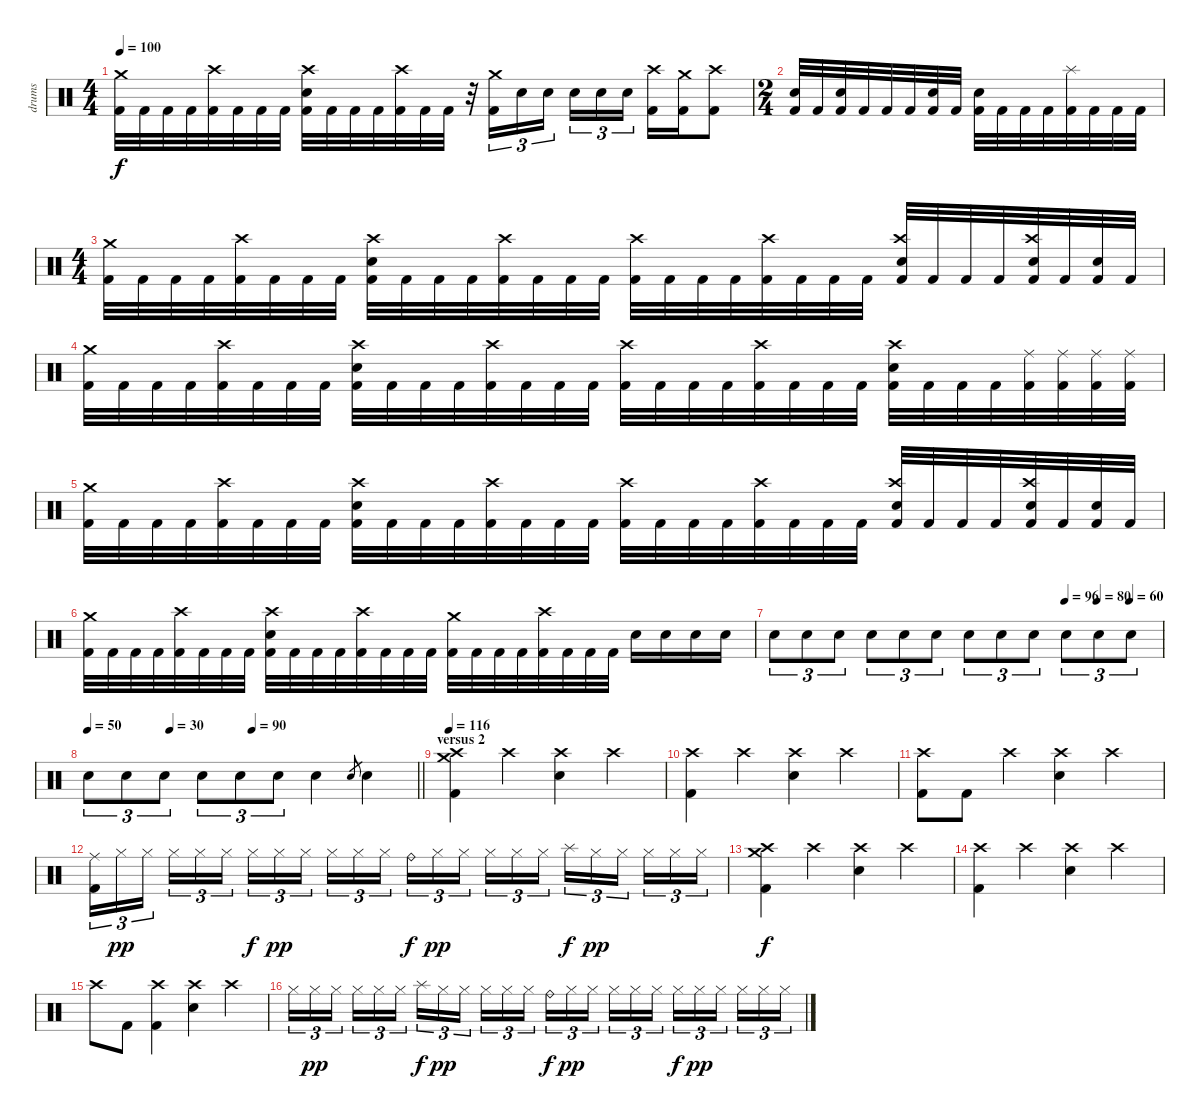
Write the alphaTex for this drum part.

\track ("drums" "drums") {instrument percussion}
\staff {score}
\articulation defaults
\ts (4 4)
\tempo 100
\clef neutral
\ks c
("Crash medium (hit)" "Kick (hit) 2").32{dy f} "Kick (hit) 2".32 "Kick (hit) 2".32 "Kick (hit) 2".32 ("Crash high (hit)" "Kick (hit) 2").32 "Kick (hit) 2".32 "Kick (hit) 2".32 "Kick (hit) 2".32 ("Crash high (hit)" "Snare (hit) 2" "Kick (hit) 2").32 "Kick (hit) 2".32 "Kick (hit) 2".32 "Kick (hit) 2".32 ("Crash high (hit)" "Kick (hit) 2").32 "Kick (hit) 2".32 "Kick (hit) 2".32 r.32 ("Crash medium (hit)" "Kick (hit) 2").16{tu (3 2)} "Snare (hit) 2".16{tu (3 2)} "Snare (hit) 2".16{tu (3 2) beam splitsecondary} "Snare (hit) 2".16{tu (3 2)} "Snare (hit) 2".16{tu (3 2)} "Snare (hit) 2".16{tu (3 2)} ("Crash high (hit)" "Kick (hit) 2").16 ("Crash medium (hit)" "Kick (hit) 2").16 ("Crash high (hit)" "Kick (hit) 2").8 |
\ts (2 4)
("Snare (hit) 2" "Kick (hit) 2").32 "Kick (hit) 2".32 ("Snare (hit) 2" "Kick (hit) 2").32 "Kick (hit) 2".32 "Kick (hit) 2".32 "Kick (hit) 2".32 ("Snare (hit) 2" "Kick (hit) 2").32 "Kick (hit) 2".32 ("Snare (hit) 2" "Kick (hit) 2").32 "Kick (hit) 2".32 "Kick (hit) 2".32 "Kick (hit) 2".32 ("Splash (hit)" "Kick (hit) 2").32 "Kick (hit) 2".32 "Kick (hit) 2".32 "Kick (hit) 2".32 |
\ts (4 4)
("Crash medium (hit)" "Kick (hit) 2").32 "Kick (hit) 2".32 "Kick (hit) 2".32 "Kick (hit) 2".32 ("Crash high (hit)" "Kick (hit) 2").32 "Kick (hit) 2".32 "Kick (hit) 2".32 "Kick (hit) 2".32 ("Crash high (hit)" "Snare (hit) 2" "Kick (hit) 2").32 "Kick (hit) 2".32 "Kick (hit) 2".32 "Kick (hit) 2".32 ("Crash high (hit)" "Kick (hit) 2").32 "Kick (hit) 2".32 "Kick (hit) 2".32 "Kick (hit) 2".32 ("Crash high (hit)" "Kick (hit) 2").32 "Kick (hit) 2".32 "Kick (hit) 2".32 "Kick (hit) 2".32 ("Crash high (hit)" "Kick (hit) 2").32 "Kick (hit) 2".32 "Kick (hit) 2".32 "Kick (hit) 2".32 ("Crash high (hit)" "Snare (hit) 2" "Kick (hit) 2").32 "Kick (hit) 2".32 "Kick (hit) 2".32 "Kick (hit) 2".32 ("Crash high (hit)" "Snare (hit) 2" "Kick (hit) 2").32 "Kick (hit) 2".32 ("Snare (hit) 2" "Kick (hit) 2").32 "Kick (hit) 2".32 |
("Crash medium (hit)" "Kick (hit) 2").32 "Kick (hit) 2".32 "Kick (hit) 2".32 "Kick (hit) 2".32 ("Crash high (hit)" "Kick (hit) 2").32 "Kick (hit) 2".32 "Kick (hit) 2".32 "Kick (hit) 2".32 ("Crash high (hit)" "Snare (hit) 2" "Kick (hit) 2").32 "Kick (hit) 2".32 "Kick (hit) 2".32 "Kick (hit) 2".32 ("Crash high (hit)" "Kick (hit) 2").32 "Kick (hit) 2".32 "Kick (hit) 2".32 "Kick (hit) 2".32 ("Crash high (hit)" "Kick (hit) 2").32 "Kick (hit) 2".32 "Kick (hit) 2".32 "Kick (hit) 2".32 ("Crash high (hit)" "Kick (hit) 2").32 "Kick (hit) 2".32 "Kick (hit) 2".32 "Kick (hit) 2".32 ("Crash high (hit)" "Snare (hit) 2" "Kick (hit) 2").32 "Kick (hit) 2".32 "Kick (hit) 2".32 "Kick (hit) 2".32 ("Ride (middle)" "Kick (hit) 2").32 ("Ride (middle)" "Kick (hit) 2").32 ("Ride (middle)" "Kick (hit) 2").32 ("Ride (middle)" "Kick (hit) 2").32 |
("Crash medium (hit)" "Kick (hit) 2").32 "Kick (hit) 2".32 "Kick (hit) 2".32 "Kick (hit) 2".32 ("Crash high (hit)" "Kick (hit) 2").32 "Kick (hit) 2".32 "Kick (hit) 2".32 "Kick (hit) 2".32 ("Crash high (hit)" "Snare (hit) 2" "Kick (hit) 2").32 "Kick (hit) 2".32 "Kick (hit) 2".32 "Kick (hit) 2".32 ("Crash high (hit)" "Kick (hit) 2").32 "Kick (hit) 2".32 "Kick (hit) 2".32 "Kick (hit) 2".32 ("Crash high (hit)" "Kick (hit) 2").32 "Kick (hit) 2".32 "Kick (hit) 2".32 "Kick (hit) 2".32 ("Crash high (hit)" "Kick (hit) 2").32 "Kick (hit) 2".32 "Kick (hit) 2".32 "Kick (hit) 2".32 ("Crash high (hit)" "Snare (hit) 2" "Kick (hit) 2").32 "Kick (hit) 2".32 "Kick (hit) 2".32 "Kick (hit) 2".32 ("Crash high (hit)" "Snare (hit) 2" "Kick (hit) 2").32 "Kick (hit) 2".32 ("Snare (hit) 2" "Kick (hit) 2").32 "Kick (hit) 2".32 |
("Crash medium (hit)" "Kick (hit) 2").32 "Kick (hit) 2".32 "Kick (hit) 2".32 "Kick (hit) 2".32 ("Crash high (hit)" "Kick (hit) 2").32 "Kick (hit) 2".32 "Kick (hit) 2".32 "Kick (hit) 2".32 ("Crash high (hit)" "Snare (hit) 2" "Kick (hit) 2").32 "Kick (hit) 2".32 "Kick (hit) 2".32 "Kick (hit) 2".32 ("Crash high (hit)" "Kick (hit) 2").32 "Kick (hit) 2".32 "Kick (hit) 2".32 "Kick (hit) 2".32 ("Crash medium (hit)" "Kick (hit) 2").32 "Kick (hit) 2".32 "Kick (hit) 2".32 "Kick (hit) 2".32 ("Crash high (hit)" "Kick (hit) 2").32 "Kick (hit) 2".32 "Kick (hit) 2".32 "Kick (hit) 2".32 "Snare (hit) 2".16 "Snare (hit) 2".16 "Snare (hit) 2".16 "Snare (hit) 2".16 |
\tempo (96 0.75)
\tempo (80 0.8333333333333334)
\tempo (60 0.9166666666666666)
"Snare (hit) 2".8{tu (3 2)} "Snare (hit) 2".8{tu (3 2)} "Snare (hit) 2".8{tu (3 2)} "Snare (hit) 2".8{tu (3 2)} "Snare (hit) 2".8{tu (3 2)} "Snare (hit) 2".8{tu (3 2)} "Snare (hit) 2".8{tu (3 2)} "Snare (hit) 2".8{tu (3 2)} "Snare (hit) 2".8{tu (3 2)} "Snare (hit) 2".8{tu (3 2)} "Snare (hit) 2".8{tu (3 2)} "Snare (hit) 2".8{tu (3 2)} |
\tempo 50
\tempo (30 0.25)
\tempo (90 0.5)
\barLineRight lightlight "Snare (hit) 2".8{tu (3 2)} "Snare (hit) 2".8{tu (3 2)} "Snare (hit) 2".8{tu (3 2)} "Snare (hit) 2".8{tu (3 2)} "Snare (hit) 2".8{tu (3 2)} "Snare (hit) 2".8{tu (3 2)} "Snare (hit) 2".4 "Snare (hit) 2".8{gr} "Snare (hit) 2".4
|
\section ("" "versus 2")
\tempo 116
("Crash medium (hit)" "Crash high (hit)" "Kick (hit) 2").4 "Crash high (hit)".4 ("Crash high (hit)" "Snare (hit) 2").4 "Crash high (hit)".4 |
("Crash high (hit)" "Kick (hit) 2").4 "Crash high (hit)".4 ("Crash high (hit)" "Snare (hit) 2").4 "Crash high (hit)".4 |
("Crash high (hit)" "Kick (hit) 2").8 "Kick (hit) 2".8 "Crash high (hit)".4 ("Crash high (hit)" "Snare (hit) 2").4 "Crash high (hit)".4 |
("Ride (middle)" "Kick (hit) 2").16{tu (3 2)} "Hi-Hat (closed)".16{tu (3 2) dy pp} "Hi-Hat (closed)".16{tu (3 2) beam splitsecondary} "Hi-Hat (closed)".16{tu (3 2)} "Hi-Hat (closed)".16{tu (3 2)} "Hi-Hat (closed)".16{tu (3 2)} "Hi-Hat (closed)".16{tu (3 2) dy f} "Hi-Hat (closed)".16{tu (3 2) dy pp} "Hi-Hat (closed)".16{tu (3 2) beam splitsecondary} "Hi-Hat (closed)".16{tu (3 2)} "Hi-Hat (closed)".16{tu (3 2)} "Hi-Hat (closed)".16{tu (3 2)} "Ride (bell)".16{tu (3 2) dy f} "Hi-Hat (closed)".16{tu (3 2) dy pp} "Hi-Hat (closed)".16{tu (3 2) beam splitsecondary} "Hi-Hat (closed)".16{tu (3 2)} "Hi-Hat (closed)".16{tu (3 2)} "Hi-Hat (closed)".16{tu (3 2)} "Splash (hit)".16{tu (3 2) dy f} "Hi-Hat (closed)".16{tu (3 2) dy pp} "Hi-Hat (closed)".16{tu (3 2) beam splitsecondary} "Hi-Hat (closed)".16{tu (3 2)} "Hi-Hat (closed)".16{tu (3 2)} "Hi-Hat (closed)".16{tu (3 2)} |
("Crash medium (hit)" "Crash high (hit)" "Kick (hit) 2").4{dy f} "Crash high (hit)".4 ("Crash high (hit)" "Snare (hit) 2").4 "Crash high (hit)".4 |
("Crash high (hit)" "Kick (hit) 2").4 "Crash high (hit)".4 ("Crash high (hit)" "Snare (hit) 2").4 "Crash high (hit)".4 |
"Crash high (hit)".8 "Kick (hit) 2".8 ("Crash high (hit)" "Kick (hit) 2").4 ("Crash high (hit)" "Snare (hit) 2").4 "Crash high (hit)".4 |
"Hi-Hat (closed)".16{tu (3 2)} "Hi-Hat (closed)".16{tu (3 2) dy pp} "Hi-Hat (closed)".16{tu (3 2) beam splitsecondary} "Hi-Hat (closed)".16{tu (3 2)} "Hi-Hat (closed)".16{tu (3 2)} "Hi-Hat (closed)".16{tu (3 2)} "Splash (hit)".16{tu (3 2) dy f} "Hi-Hat (closed)".16{tu (3 2) dy pp} "Hi-Hat (closed)".16{tu (3 2) beam splitsecondary} "Hi-Hat (closed)".16{tu (3 2)} "Hi-Hat (closed)".16{tu (3 2)} "Hi-Hat (closed)".16{tu (3 2)} "Ride (bell)".16{tu (3 2) dy f} "Hi-Hat (closed)".16{tu (3 2) dy pp} "Hi-Hat (closed)".16{tu (3 2) beam splitsecondary} "Hi-Hat (closed)".16{tu (3 2)} "Hi-Hat (closed)".16{tu (3 2)} "Hi-Hat (closed)".16{tu (3 2)} "Hi-Hat (closed)".16{tu (3 2) dy f} "Hi-Hat (closed)".16{tu (3 2) dy pp} "Hi-Hat (closed)".16{tu (3 2) beam splitsecondary} "Hi-Hat (closed)".16{tu (3 2)} "Hi-Hat (closed)".16{tu (3 2)} "Hi-Hat (closed)".16{tu (3 2)}
